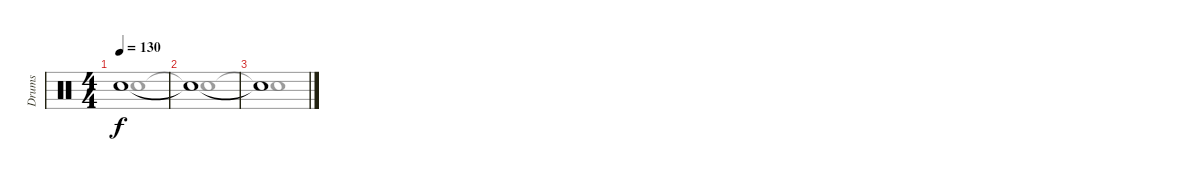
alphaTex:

\track ("Drums" "Drums") {instrument percussion}
\staff {score}
\articulation defaults
\voice
\ts (4 4)
\tempo 130
\clef neutral
\ks c "Snare (hit)"{t}.1{dy f}
|
"Snare (hit)"{t}.1 |
"Snare (hit)"{t}.1
\voice
\clef neutral
\ottava regular
\simile none
\ks c "Snare (hit)"{t}.1{dy f}
|
"Snare (hit)"{t}.1 |
"Snare (hit)"{t}.1
